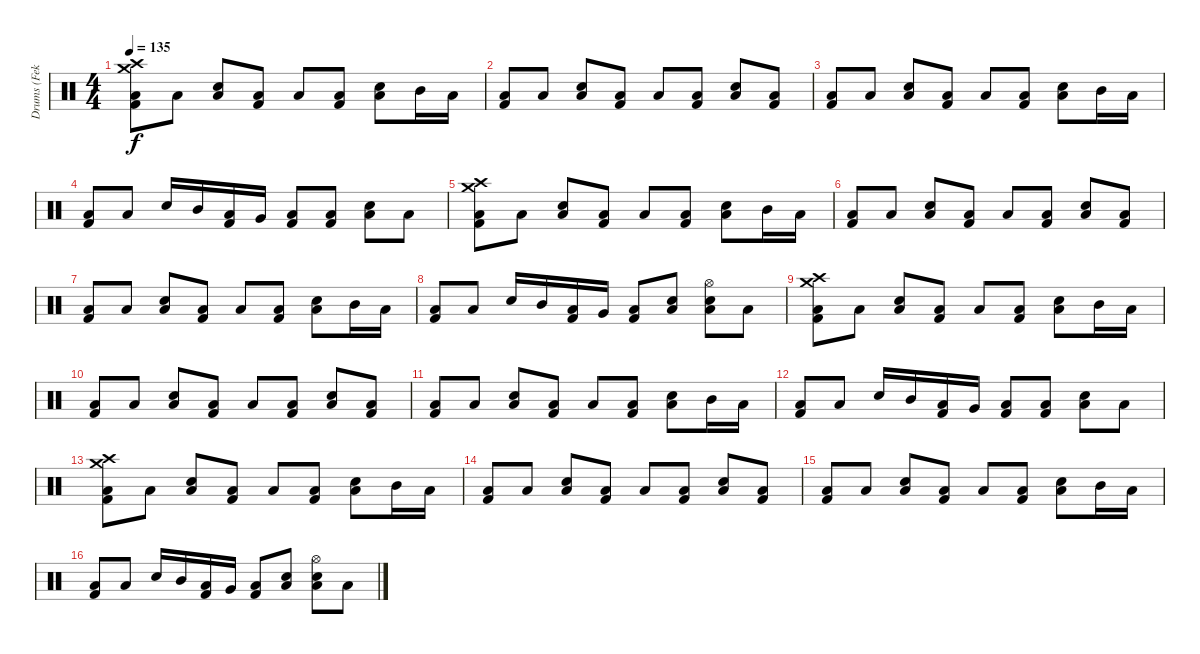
\track ("Drums (Feka)" "Drums (Fek") {instrument percussion}
\staff {score}
\articulation defaults
\ts (4 4)
\tempo 135
\clef neutral
\ks c
("Crash high (hit)" "Crash medium (hit)" "Low Floor Tom (hit)" "Kick (hit) 2").8{dy f} "Low Floor Tom (hit)".8 ("Snare (hit) 2" "Low Floor Tom (hit)").8 ("Low Floor Tom (hit)" "Kick (hit) 2").8 "Low Floor Tom (hit)".8 ("Low Floor Tom (hit)" "Kick (hit) 2").8 ("Snare (hit) 2" "Low Floor Tom (hit)").8 "Mid Tom (hit)".16 "Low Tom (hit)".16 |
("Low Floor Tom (hit)" "Kick (hit) 2").8 "Low Floor Tom (hit)".8 ("Snare (hit) 2" "Low Floor Tom (hit)").8 ("Low Floor Tom (hit)" "Kick (hit) 2").8 "Low Floor Tom (hit)".8 ("Low Floor Tom (hit)" "Kick (hit) 2").8 ("Snare (hit) 2" "Low Floor Tom (hit)").8 ("Low Floor Tom (hit)" "Kick (hit) 2").8 |
("Low Floor Tom (hit)" "Kick (hit) 2").8 "Low Floor Tom (hit)".8 ("Snare (hit) 2" "Low Floor Tom (hit)").8 ("Low Floor Tom (hit)" "Kick (hit) 2").8 "Low Floor Tom (hit)".8 ("Low Floor Tom (hit)" "Kick (hit) 2").8 ("Snare (hit) 2" "Low Floor Tom (hit)").8 "Mid Tom (hit)".16 "Low Tom (hit)".16 |
("Low Floor Tom (hit)" "Kick (hit) 2").8 "Low Floor Tom (hit)".8 "Snare (hit) 2".16 "Mid Tom (hit)".16 ("Low Tom (hit)" "Kick (hit) 2").16 "Very Low Tom (hit)".16 ("Low Floor Tom (hit)" "Kick (hit) 2").8 ("Low Floor Tom (hit)" "Kick (hit) 2").8 ("Snare (hit) 2" "Low Floor Tom (hit)").8 "Low Floor Tom (hit)".8 |
("Crash high (hit)" "Crash medium (hit)" "Low Floor Tom (hit)" "Kick (hit) 2").8 "Low Floor Tom (hit)".8 ("Snare (hit) 2" "Low Floor Tom (hit)").8 ("Low Floor Tom (hit)" "Kick (hit) 2").8 "Low Floor Tom (hit)".8 ("Low Floor Tom (hit)" "Kick (hit) 2").8 ("Snare (hit) 2" "Low Floor Tom (hit)").8 "Mid Tom (hit)".16 "Low Tom (hit)".16 |
("Low Floor Tom (hit)" "Kick (hit) 2").8 "Low Floor Tom (hit)".8 ("Snare (hit) 2" "Low Floor Tom (hit)").8 ("Low Floor Tom (hit)" "Kick (hit) 2").8 "Low Floor Tom (hit)".8 ("Low Floor Tom (hit)" "Kick (hit) 2").8 ("Snare (hit) 2" "Low Floor Tom (hit)").8 ("Low Floor Tom (hit)" "Kick (hit) 2").8 |
("Low Floor Tom (hit)" "Kick (hit) 2").8 "Low Floor Tom (hit)".8 ("Snare (hit) 2" "Low Floor Tom (hit)").8 ("Low Floor Tom (hit)" "Kick (hit) 2").8 "Low Floor Tom (hit)".8 ("Low Floor Tom (hit)" "Kick (hit) 2").8 ("Snare (hit) 2" "Low Floor Tom (hit)").8 "Mid Tom (hit)".16 "Low Tom (hit)".16 |
("Low Floor Tom (hit)" "Kick (hit) 2").8 "Low Floor Tom (hit)".8 "Snare (hit) 2".16 "Mid Tom (hit)".16 ("Low Tom (hit)" "Kick (hit) 2").16 "Very Low Tom (hit)".16 ("Low Floor Tom (hit)" "Kick (hit) 2").8 ("Snare (hit) 2" "Low Floor Tom (hit)").8 ("Hi-Hat (open)" "Snare (hit) 2" "Low Floor Tom (hit)").8 "Low Floor Tom (hit)".8 |
("Crash high (hit)" "Crash medium (hit)" "Low Floor Tom (hit)" "Kick (hit) 2").8 "Low Floor Tom (hit)".8 ("Snare (hit) 2" "Low Floor Tom (hit)").8 ("Low Floor Tom (hit)" "Kick (hit) 2").8 "Low Floor Tom (hit)".8 ("Low Floor Tom (hit)" "Kick (hit) 2").8 ("Snare (hit) 2" "Low Floor Tom (hit)").8 "Mid Tom (hit)".16 "Low Tom (hit)".16 |
("Low Floor Tom (hit)" "Kick (hit) 2").8 "Low Floor Tom (hit)".8 ("Snare (hit) 2" "Low Floor Tom (hit)").8 ("Low Floor Tom (hit)" "Kick (hit) 2").8 "Low Floor Tom (hit)".8 ("Low Floor Tom (hit)" "Kick (hit) 2").8 ("Snare (hit) 2" "Low Floor Tom (hit)").8 ("Low Floor Tom (hit)" "Kick (hit) 2").8 |
("Low Floor Tom (hit)" "Kick (hit) 2").8 "Low Floor Tom (hit)".8 ("Snare (hit) 2" "Low Floor Tom (hit)").8 ("Low Floor Tom (hit)" "Kick (hit) 2").8 "Low Floor Tom (hit)".8 ("Low Floor Tom (hit)" "Kick (hit) 2").8 ("Snare (hit) 2" "Low Floor Tom (hit)").8 "Mid Tom (hit)".16 "Low Tom (hit)".16 |
("Low Floor Tom (hit)" "Kick (hit) 2").8 "Low Floor Tom (hit)".8 "Snare (hit) 2".16 "Mid Tom (hit)".16 ("Low Tom (hit)" "Kick (hit) 2").16 "Very Low Tom (hit)".16 ("Low Floor Tom (hit)" "Kick (hit) 2").8 ("Low Floor Tom (hit)" "Kick (hit) 2").8 ("Snare (hit) 2" "Low Floor Tom (hit)").8 "Low Floor Tom (hit)".8 |
("Crash high (hit)" "Crash medium (hit)" "Low Floor Tom (hit)" "Kick (hit) 2").8 "Low Floor Tom (hit)".8 ("Snare (hit) 2" "Low Floor Tom (hit)").8 ("Low Floor Tom (hit)" "Kick (hit) 2").8 "Low Floor Tom (hit)".8 ("Low Floor Tom (hit)" "Kick (hit) 2").8 ("Snare (hit) 2" "Low Floor Tom (hit)").8 "Mid Tom (hit)".16 "Low Tom (hit)".16 |
("Low Floor Tom (hit)" "Kick (hit) 2").8 "Low Floor Tom (hit)".8 ("Snare (hit) 2" "Low Floor Tom (hit)").8 ("Low Floor Tom (hit)" "Kick (hit) 2").8 "Low Floor Tom (hit)".8 ("Low Floor Tom (hit)" "Kick (hit) 2").8 ("Snare (hit) 2" "Low Floor Tom (hit)").8 ("Low Floor Tom (hit)" "Kick (hit) 2").8 |
("Low Floor Tom (hit)" "Kick (hit) 2").8 "Low Floor Tom (hit)".8 ("Snare (hit) 2" "Low Floor Tom (hit)").8 ("Low Floor Tom (hit)" "Kick (hit) 2").8 "Low Floor Tom (hit)".8 ("Low Floor Tom (hit)" "Kick (hit) 2").8 ("Snare (hit) 2" "Low Floor Tom (hit)").8 "Mid Tom (hit)".16 "Low Tom (hit)".16 |
("Low Floor Tom (hit)" "Kick (hit) 2").8 "Low Floor Tom (hit)".8 "Snare (hit) 2".16 "Mid Tom (hit)".16 ("Low Tom (hit)" "Kick (hit) 2").16 "Very Low Tom (hit)".16 ("Low Floor Tom (hit)" "Kick (hit) 2").8 ("Snare (hit) 2" "Low Floor Tom (hit)").8 ("Hi-Hat (open)" "Snare (hit) 2" "Low Floor Tom (hit)").8 "Low Floor Tom (hit)".8
